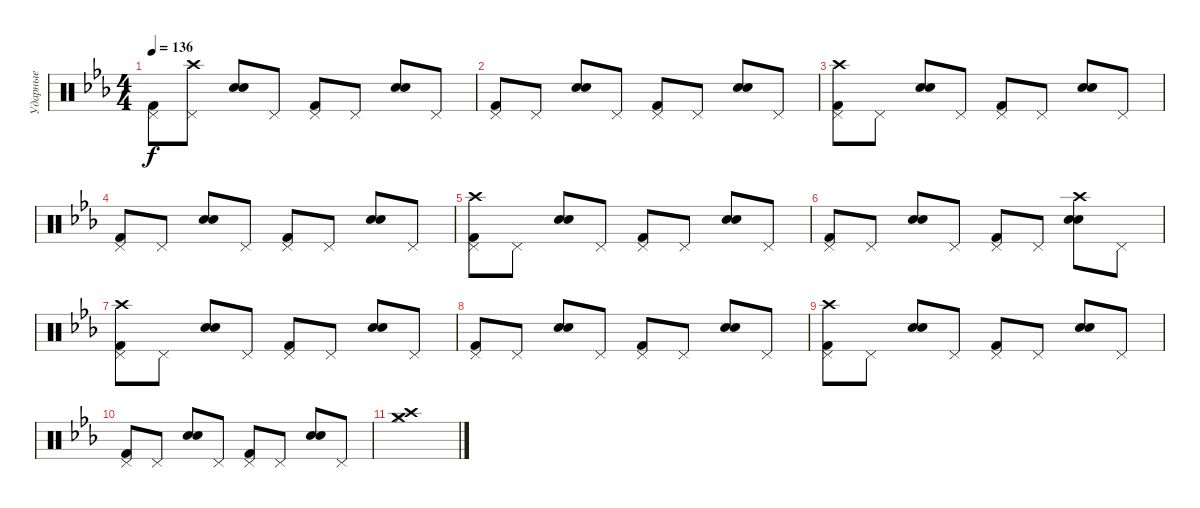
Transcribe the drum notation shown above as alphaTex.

\track ("Ударные" "Ударные") {instrument percussion}
\staff {score}
\articulation defaults
\ts (4 4)
\tempo 136
\clef neutral
\ks cminor
("Pedal Hi-Hat (hit)" "Kick (hit) 2").8{dy f} ("Pedal Hi-Hat (hit)" "Crash high (hit)").8 ("Snare (hit) 2" "Snare (hit) 2").8 "Pedal Hi-Hat (hit)".8 ("Pedal Hi-Hat (hit)" "Kick (hit) 2").8 "Pedal Hi-Hat (hit)".8 ("Snare (hit) 2" "Snare (hit) 2").8 "Pedal Hi-Hat (hit)".8 |
("Pedal Hi-Hat (hit)" "Kick (hit) 2").8 "Pedal Hi-Hat (hit)".8 ("Snare (hit) 2" "Snare (hit) 2").8 "Pedal Hi-Hat (hit)".8 ("Pedal Hi-Hat (hit)" "Kick (hit) 2").8 "Pedal Hi-Hat (hit)".8 ("Snare (hit) 2" "Snare (hit) 2").8 "Pedal Hi-Hat (hit)".8 |
("Pedal Hi-Hat (hit)" "Kick (hit) 2" "Crash high (hit)").8 "Pedal Hi-Hat (hit)".8 ("Snare (hit) 2" "Snare (hit) 2").8 "Pedal Hi-Hat (hit)".8 ("Pedal Hi-Hat (hit)" "Kick (hit) 2").8 "Pedal Hi-Hat (hit)".8 ("Snare (hit) 2" "Snare (hit) 2").8 "Pedal Hi-Hat (hit)".8 |
("Pedal Hi-Hat (hit)" "Kick (hit) 2").8 "Pedal Hi-Hat (hit)".8 ("Snare (hit) 2" "Snare (hit) 2").8 "Pedal Hi-Hat (hit)".8 ("Pedal Hi-Hat (hit)" "Kick (hit) 2").8 "Pedal Hi-Hat (hit)".8 ("Snare (hit) 2" "Snare (hit) 2").8 "Pedal Hi-Hat (hit)".8 |
("Pedal Hi-Hat (hit)" "Kick (hit) 2" "Crash high (hit)").8 "Pedal Hi-Hat (hit)".8 ("Snare (hit) 2" "Snare (hit) 2").8 "Pedal Hi-Hat (hit)".8 ("Pedal Hi-Hat (hit)" "Kick (hit) 2").8 "Pedal Hi-Hat (hit)".8 ("Snare (hit) 2" "Snare (hit) 2").8 "Pedal Hi-Hat (hit)".8 |
("Pedal Hi-Hat (hit)" "Kick (hit) 2").8 "Pedal Hi-Hat (hit)".8 ("Snare (hit) 2" "Snare (hit) 2").8 "Pedal Hi-Hat (hit)".8 ("Pedal Hi-Hat (hit)" "Kick (hit) 2").8 "Pedal Hi-Hat (hit)".8 ("Snare (hit) 2" "Snare (hit) 2" "Crash high (hit)").8 "Pedal Hi-Hat (hit)".8 |
("Pedal Hi-Hat (hit)" "Kick (hit) 2" "Crash high (hit)").8 "Pedal Hi-Hat (hit)".8 ("Snare (hit) 2" "Snare (hit) 2").8 "Pedal Hi-Hat (hit)".8 ("Pedal Hi-Hat (hit)" "Kick (hit) 2").8 "Pedal Hi-Hat (hit)".8 ("Snare (hit) 2" "Snare (hit) 2").8 "Pedal Hi-Hat (hit)".8 |
("Pedal Hi-Hat (hit)" "Kick (hit) 2").8 "Pedal Hi-Hat (hit)".8 ("Snare (hit) 2" "Snare (hit) 2").8 "Pedal Hi-Hat (hit)".8 ("Pedal Hi-Hat (hit)" "Kick (hit) 2").8 "Pedal Hi-Hat (hit)".8 ("Snare (hit) 2" "Snare (hit) 2").8 "Pedal Hi-Hat (hit)".8 |
("Pedal Hi-Hat (hit)" "Kick (hit) 2" "Crash high (hit)").8 "Pedal Hi-Hat (hit)".8 ("Snare (hit) 2" "Snare (hit) 2").8 "Pedal Hi-Hat (hit)".8 ("Pedal Hi-Hat (hit)" "Kick (hit) 2").8 "Pedal Hi-Hat (hit)".8 ("Snare (hit) 2" "Snare (hit) 2").8 "Pedal Hi-Hat (hit)".8 |
("Pedal Hi-Hat (hit)" "Kick (hit) 2").8 "Pedal Hi-Hat (hit)".8 ("Snare (hit) 2" "Snare (hit) 2").8 "Pedal Hi-Hat (hit)".8 ("Pedal Hi-Hat (hit)" "Kick (hit) 2").8 "Pedal Hi-Hat (hit)".8 ("Snare (hit) 2" "Snare (hit) 2").8 "Pedal Hi-Hat (hit)".8 |
("Crash high (hit)" "Crash medium (hit)" "Hi-Hat (closed)").1
